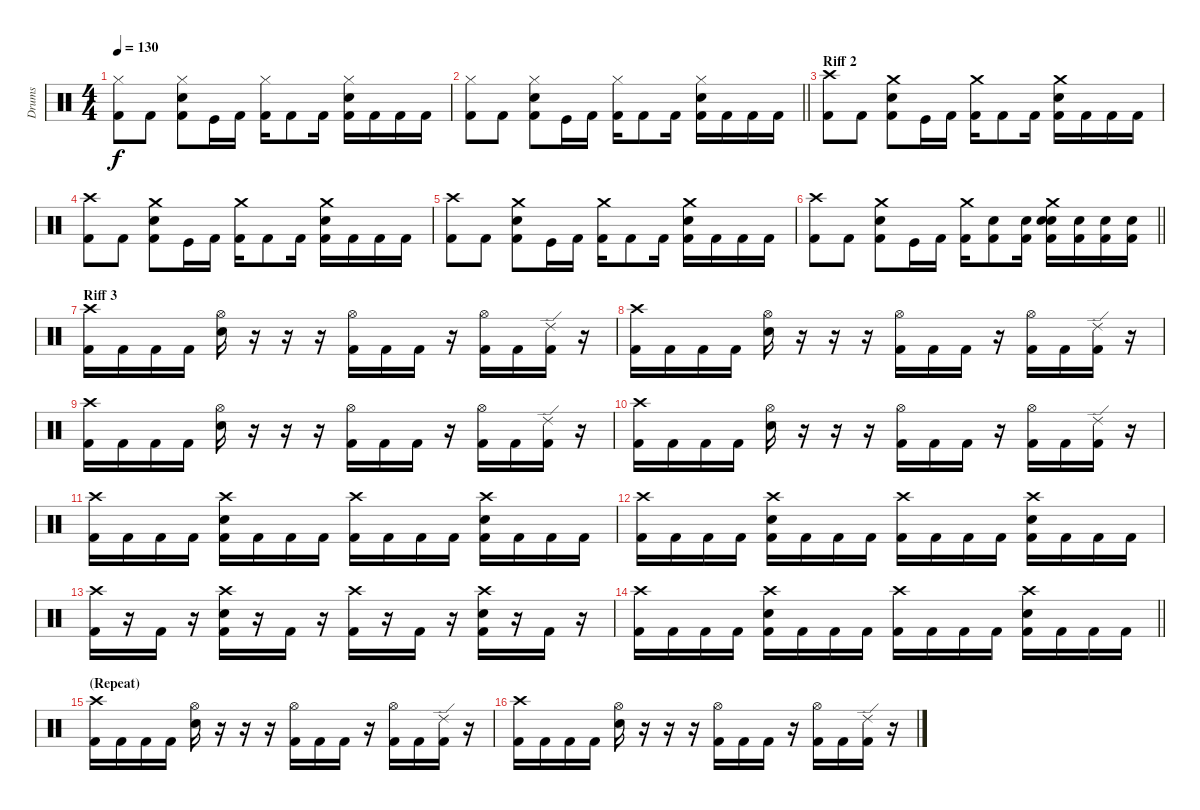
\track ("Drums" "Drums") {instrument percussion}
\staff {score}
\articulation defaults
\ts (4 4)
\tempo 130
\clef neutral
\ks c
("Hi-Hat (closed)" "Kick (hit) 2").8{dy f} "Kick (hit) 2".8 ("Hi-Hat (closed)" "Electric Snare (hit)" "Kick (hit) 2").8 "Kick (hit)".16 "Kick (hit) 2".16 ("Hi-Hat (closed)" "Kick (hit) 2").16 "Kick (hit) 2".8 "Kick (hit) 2".16 ("Hi-Hat (closed)" "Electric Snare (hit)" "Kick (hit) 2").16 "Kick (hit) 2".16 "Kick (hit) 2".16 "Kick (hit) 2".16 |
\barLineRight lightlight
("Hi-Hat (closed)" "Kick (hit) 2").8 "Kick (hit) 2".8 ("Hi-Hat (closed)" "Electric Snare (hit)" "Kick (hit) 2").8 "Kick (hit)".16 "Kick (hit) 2".16 ("Hi-Hat (closed)" "Kick (hit) 2").16 "Kick (hit) 2".8 "Kick (hit) 2".16 ("Hi-Hat (closed)" "Electric Snare (hit)" "Kick (hit) 2").16 "Kick (hit) 2".16 "Kick (hit) 2".16 "Kick (hit) 2".16 |
\section ("" "Riff 2")
("Crash high (hit)" "Kick (hit) 2").8 "Kick (hit) 2".8 ("Crash medium (hit)" "Electric Snare (hit)" "Kick (hit) 2").8 "Kick (hit)".16 "Kick (hit) 2".16 ("Crash medium (hit)" "Kick (hit) 2").16 "Kick (hit) 2".8 "Kick (hit) 2".16 ("Crash medium (hit)" "Electric Snare (hit)" "Kick (hit) 2").16 "Kick (hit) 2".16 "Kick (hit) 2".16 "Kick (hit) 2".16 |
("Crash high (hit)" "Kick (hit) 2").8 "Kick (hit) 2".8 ("Crash medium (hit)" "Electric Snare (hit)" "Kick (hit) 2").8 "Kick (hit)".16 "Kick (hit) 2".16 ("Crash medium (hit)" "Kick (hit) 2").16 "Kick (hit) 2".8 "Kick (hit) 2".16 ("Crash medium (hit)" "Electric Snare (hit)" "Kick (hit) 2").16 "Kick (hit) 2".16 "Kick (hit) 2".16 "Kick (hit) 2".16 |
("Crash high (hit)" "Kick (hit) 2").8 "Kick (hit) 2".8 ("Crash medium (hit)" "Electric Snare (hit)" "Kick (hit) 2").8 "Kick (hit)".16 "Kick (hit) 2".16 ("Crash medium (hit)" "Kick (hit) 2").16 "Kick (hit) 2".8 "Kick (hit) 2".16 ("Crash medium (hit)" "Electric Snare (hit)" "Kick (hit) 2").16 "Kick (hit) 2".16 "Kick (hit) 2".16 "Kick (hit) 2".16 |
\barLineRight lightlight
("Crash high (hit)" "Kick (hit) 2").8 "Kick (hit) 2".8 ("Crash medium (hit)" "Electric Snare (hit)" "Kick (hit) 2").8 "Kick (hit)".16 "Kick (hit) 2".16 ("Crash medium (hit)" "Kick (hit) 2").16 ("Electric Snare (hit)" "Kick (hit) 2").8 ("Electric Snare (hit)" "Kick (hit) 2").16 ("Crash medium (hit)" "Electric Snare (hit)" "Electric Snare (hit)" "Kick (hit) 2").16 ("Electric Snare (hit)" "Kick (hit) 2").16 ("Electric Snare (hit)" "Kick (hit) 2").16 ("Electric Snare (hit)" "Kick (hit) 2").16 |
\section ("" "Riff 3")
("Crash high (hit)" "Kick (hit) 2").16 "Kick (hit) 2".16 "Kick (hit) 2".16 "Kick (hit) 2".16 ("Hi-Hat (open)" "Electric Snare (hit)").16 r.16 r.16 r.16 ("Hi-Hat (open)" "Kick (hit) 2").16 "Kick (hit) 2".16 "Kick (hit) 2".16 r.16 ("Hi-Hat (open)" "Kick (hit) 2").16 "Kick (hit) 2".16 ("Ride (edge) 2" "Kick (hit) 2").16 r.16 |
("Crash high (hit)" "Kick (hit) 2").16 "Kick (hit) 2".16 "Kick (hit) 2".16 "Kick (hit) 2".16 ("Hi-Hat (open)" "Electric Snare (hit)").16 r.16 r.16 r.16 ("Hi-Hat (open)" "Kick (hit) 2").16 "Kick (hit) 2".16 "Kick (hit) 2".16 r.16 ("Hi-Hat (open)" "Kick (hit) 2").16 "Kick (hit) 2".16 ("Ride (edge) 2" "Kick (hit) 2").16 r.16 |
("Crash high (hit)" "Kick (hit) 2").16 "Kick (hit) 2".16 "Kick (hit) 2".16 "Kick (hit) 2".16 ("Hi-Hat (open)" "Electric Snare (hit)").16 r.16 r.16 r.16 ("Hi-Hat (open)" "Kick (hit) 2").16 "Kick (hit) 2".16 "Kick (hit) 2".16 r.16 ("Hi-Hat (open)" "Kick (hit) 2").16 "Kick (hit) 2".16 ("Ride (edge) 2" "Kick (hit) 2").16 r.16 |
("Crash high (hit)" "Kick (hit) 2").16 "Kick (hit) 2".16 "Kick (hit) 2".16 "Kick (hit) 2".16 ("Hi-Hat (open)" "Electric Snare (hit)").16 r.16 r.16 r.16 ("Hi-Hat (open)" "Kick (hit) 2").16 "Kick (hit) 2".16 "Kick (hit) 2".16 r.16 ("Hi-Hat (open)" "Kick (hit) 2").16 "Kick (hit) 2".16 ("Ride (edge) 2" "Kick (hit) 2").16 r.16 |
("Crash high (hit)" "Kick (hit) 2").16 "Kick (hit) 2".16 "Kick (hit) 2".16 "Kick (hit) 2".16 ("Crash high (hit)" "Electric Snare (hit)" "Kick (hit) 2").16 "Kick (hit) 2".16 "Kick (hit) 2".16 "Kick (hit) 2".16 ("Crash high (hit)" "Kick (hit) 2").16 "Kick (hit) 2".16 "Kick (hit) 2".16 "Kick (hit) 2".16 ("Crash high (hit)" "Electric Snare (hit)" "Kick (hit) 2").16 "Kick (hit) 2".16 "Kick (hit) 2".16 "Kick (hit) 2".16 |
("Crash high (hit)" "Kick (hit) 2").16 "Kick (hit) 2".16 "Kick (hit) 2".16 "Kick (hit) 2".16 ("Crash high (hit)" "Electric Snare (hit)" "Kick (hit) 2").16 "Kick (hit) 2".16 "Kick (hit) 2".16 "Kick (hit) 2".16 ("Crash high (hit)" "Kick (hit) 2").16 "Kick (hit) 2".16 "Kick (hit) 2".16 "Kick (hit) 2".16 ("Crash high (hit)" "Electric Snare (hit)" "Kick (hit) 2").16 "Kick (hit) 2".16 "Kick (hit) 2".16 "Kick (hit) 2".16 |
("Crash high (hit)" "Kick (hit) 2").16 r.16 "Kick (hit) 2".16 r.16 ("Crash high (hit)" "Electric Snare (hit)" "Kick (hit) 2").16 r.16 "Kick (hit) 2".16 r.16 ("Crash high (hit)" "Kick (hit) 2").16 r.16 "Kick (hit) 2".16 r.16 ("Crash high (hit)" "Electric Snare (hit)" "Kick (hit) 2").16 r.16 "Kick (hit) 2".16 r.16 |
\barLineRight lightlight
("Crash high (hit)" "Kick (hit) 2").16 "Kick (hit) 2".16 "Kick (hit) 2".16 "Kick (hit) 2".16 ("Crash high (hit)" "Electric Snare (hit)" "Kick (hit) 2").16 "Kick (hit) 2".16 "Kick (hit) 2".16 "Kick (hit) 2".16 ("Crash high (hit)" "Kick (hit) 2").16 "Kick (hit) 2".16 "Kick (hit) 2".16 "Kick (hit) 2".16 ("Crash high (hit)" "Electric Snare (hit)" "Kick (hit) 2").16 "Kick (hit) 2".16 "Kick (hit) 2".16 "Kick (hit) 2".16 |
\section ("" "(Repeat)")
("Crash high (hit)" "Kick (hit) 2").16 "Kick (hit) 2".16 "Kick (hit) 2".16 "Kick (hit) 2".16 ("Hi-Hat (open)" "Electric Snare (hit)").16 r.16 r.16 r.16 ("Hi-Hat (open)" "Kick (hit) 2").16 "Kick (hit) 2".16 "Kick (hit) 2".16 r.16 ("Hi-Hat (open)" "Kick (hit) 2").16 "Kick (hit) 2".16 ("Ride (edge) 2" "Kick (hit) 2").16 r.16 |
("Crash high (hit)" "Kick (hit) 2").16 "Kick (hit) 2".16 "Kick (hit) 2".16 "Kick (hit) 2".16 ("Hi-Hat (open)" "Electric Snare (hit)").16 r.16 r.16 r.16 ("Hi-Hat (open)" "Kick (hit) 2").16 "Kick (hit) 2".16 "Kick (hit) 2".16 r.16 ("Hi-Hat (open)" "Kick (hit) 2").16 "Kick (hit) 2".16 ("Ride (edge) 2" "Kick (hit) 2").16 r.16
